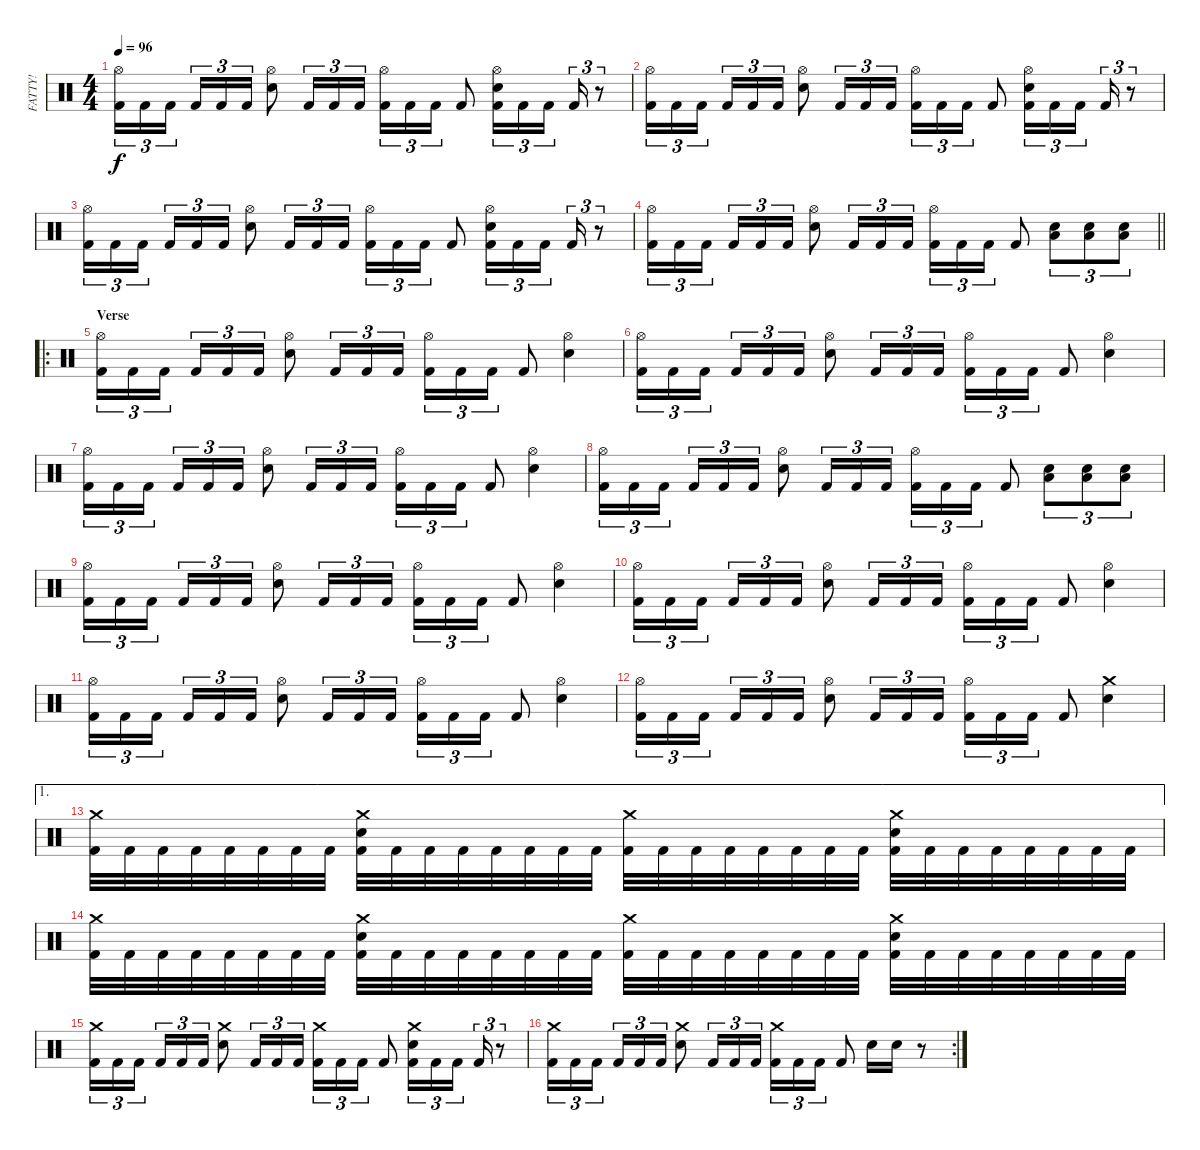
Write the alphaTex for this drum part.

\track ("FATTY!" "FATTY!") {instrument percussion}
\staff {score}
\articulation defaults
\ts (4 4)
\tempo 96
\clef neutral
\ks c
("Hi-Hat (open)" "Kick (hit) 2").16{tu (3 2) dy f} "Kick (hit) 2".16{tu (3 2)} "Kick (hit) 2".16{tu (3 2)} "Kick (hit) 2".16{tu (3 2)} "Kick (hit) 2".16{tu (3 2)} "Kick (hit) 2".16{tu (3 2)} ("Hi-Hat (open)" "Electric Snare (hit)").8 "Kick (hit) 2".16{tu (3 2)} "Kick (hit) 2".16{tu (3 2)} "Kick (hit) 2".16{tu (3 2)} ("Hi-Hat (open)" "Kick (hit) 2").16{tu (3 2)} "Kick (hit) 2".16{tu (3 2)} "Kick (hit) 2".16{tu (3 2)} "Kick (hit) 2".8 ("Hi-Hat (open)" "Electric Snare (hit)" "Kick (hit) 2").16{tu (3 2)} "Kick (hit) 2".16{tu (3 2)} "Kick (hit) 2".16{tu (3 2)} "Kick (hit) 2".16{tu (3 2)} r.8{tu (3 2)} |
("Hi-Hat (open)" "Kick (hit) 2").16{tu (3 2)} "Kick (hit) 2".16{tu (3 2)} "Kick (hit) 2".16{tu (3 2)} "Kick (hit) 2".16{tu (3 2)} "Kick (hit) 2".16{tu (3 2)} "Kick (hit) 2".16{tu (3 2)} ("Hi-Hat (open)" "Electric Snare (hit)").8 "Kick (hit) 2".16{tu (3 2)} "Kick (hit) 2".16{tu (3 2)} "Kick (hit) 2".16{tu (3 2)} ("Hi-Hat (open)" "Kick (hit) 2").16{tu (3 2)} "Kick (hit) 2".16{tu (3 2)} "Kick (hit) 2".16{tu (3 2)} "Kick (hit) 2".8 ("Hi-Hat (open)" "Electric Snare (hit)" "Kick (hit) 2").16{tu (3 2)} "Kick (hit) 2".16{tu (3 2)} "Kick (hit) 2".16{tu (3 2)} "Kick (hit) 2".16{tu (3 2)} r.8{tu (3 2)} |
("Hi-Hat (open)" "Kick (hit) 2").16{tu (3 2)} "Kick (hit) 2".16{tu (3 2)} "Kick (hit) 2".16{tu (3 2)} "Kick (hit) 2".16{tu (3 2)} "Kick (hit) 2".16{tu (3 2)} "Kick (hit) 2".16{tu (3 2)} ("Hi-Hat (open)" "Electric Snare (hit)").8 "Kick (hit) 2".16{tu (3 2)} "Kick (hit) 2".16{tu (3 2)} "Kick (hit) 2".16{tu (3 2)} ("Hi-Hat (open)" "Kick (hit) 2").16{tu (3 2)} "Kick (hit) 2".16{tu (3 2)} "Kick (hit) 2".16{tu (3 2)} "Kick (hit) 2".8 ("Hi-Hat (open)" "Electric Snare (hit)" "Kick (hit) 2").16{tu (3 2)} "Kick (hit) 2".16{tu (3 2)} "Kick (hit) 2".16{tu (3 2)} "Kick (hit) 2".16{tu (3 2)} r.8{tu (3 2)} |
\barLineRight lightlight
("Hi-Hat (open)" "Kick (hit) 2").16{tu (3 2)} "Kick (hit) 2".16{tu (3 2)} "Kick (hit) 2".16{tu (3 2)} "Kick (hit) 2".16{tu (3 2)} "Kick (hit) 2".16{tu (3 2)} "Kick (hit) 2".16{tu (3 2)} ("Hi-Hat (open)" "Electric Snare (hit)").8 "Kick (hit) 2".16{tu (3 2)} "Kick (hit) 2".16{tu (3 2)} "Kick (hit) 2".16{tu (3 2)} ("Hi-Hat (open)" "Kick (hit) 2").16{tu (3 2)} "Kick (hit) 2".16{tu (3 2)} "Kick (hit) 2".16{tu (3 2)} "Kick (hit) 2".8 ("Low Tom (hit)" "Electric Snare (hit)").8{tu (3 2)} ("Low Tom (hit)" "Electric Snare (hit)").8{tu (3 2)} ("Low Tom (hit)" "Electric Snare (hit)").8{tu (3 2)} |
\ro
\section ("" "Verse")
("Hi-Hat (open)" "Kick (hit) 2").16{tu (3 2)} "Kick (hit) 2".16{tu (3 2)} "Kick (hit) 2".16{tu (3 2)} "Kick (hit) 2".16{tu (3 2)} "Kick (hit) 2".16{tu (3 2)} "Kick (hit) 2".16{tu (3 2)} ("Hi-Hat (open)" "Electric Snare (hit)").8 "Kick (hit) 2".16{tu (3 2)} "Kick (hit) 2".16{tu (3 2)} "Kick (hit) 2".16{tu (3 2)} ("Hi-Hat (open)" "Kick (hit) 2").16{tu (3 2)} "Kick (hit) 2".16{tu (3 2)} "Kick (hit) 2".16{tu (3 2)} "Kick (hit) 2".8 ("Hi-Hat (open)" "Electric Snare (hit)").4 |
("Hi-Hat (open)" "Kick (hit) 2").16{tu (3 2)} "Kick (hit) 2".16{tu (3 2)} "Kick (hit) 2".16{tu (3 2)} "Kick (hit) 2".16{tu (3 2)} "Kick (hit) 2".16{tu (3 2)} "Kick (hit) 2".16{tu (3 2)} ("Hi-Hat (open)" "Electric Snare (hit)").8 "Kick (hit) 2".16{tu (3 2)} "Kick (hit) 2".16{tu (3 2)} "Kick (hit) 2".16{tu (3 2)} ("Hi-Hat (open)" "Kick (hit) 2").16{tu (3 2)} "Kick (hit) 2".16{tu (3 2)} "Kick (hit) 2".16{tu (3 2)} "Kick (hit) 2".8 ("Hi-Hat (open)" "Electric Snare (hit)").4 |
("Hi-Hat (open)" "Kick (hit) 2").16{tu (3 2)} "Kick (hit) 2".16{tu (3 2)} "Kick (hit) 2".16{tu (3 2)} "Kick (hit) 2".16{tu (3 2)} "Kick (hit) 2".16{tu (3 2)} "Kick (hit) 2".16{tu (3 2)} ("Hi-Hat (open)" "Electric Snare (hit)").8 "Kick (hit) 2".16{tu (3 2)} "Kick (hit) 2".16{tu (3 2)} "Kick (hit) 2".16{tu (3 2)} ("Hi-Hat (open)" "Kick (hit) 2").16{tu (3 2)} "Kick (hit) 2".16{tu (3 2)} "Kick (hit) 2".16{tu (3 2)} "Kick (hit) 2".8 ("Hi-Hat (open)" "Electric Snare (hit)").4 |
("Hi-Hat (open)" "Kick (hit) 2").16{tu (3 2)} "Kick (hit) 2".16{tu (3 2)} "Kick (hit) 2".16{tu (3 2)} "Kick (hit) 2".16{tu (3 2)} "Kick (hit) 2".16{tu (3 2)} "Kick (hit) 2".16{tu (3 2)} ("Hi-Hat (open)" "Electric Snare (hit)").8 "Kick (hit) 2".16{tu (3 2)} "Kick (hit) 2".16{tu (3 2)} "Kick (hit) 2".16{tu (3 2)} ("Hi-Hat (open)" "Kick (hit) 2").16{tu (3 2)} "Kick (hit) 2".16{tu (3 2)} "Kick (hit) 2".16{tu (3 2)} "Kick (hit) 2".8 ("Low Tom (hit)" "Electric Snare (hit)").8{tu (3 2)} ("Low Tom (hit)" "Electric Snare (hit)").8{tu (3 2)} ("Low Tom (hit)" "Electric Snare (hit)").8{tu (3 2)} |
("Hi-Hat (open)" "Kick (hit) 2").16{tu (3 2)} "Kick (hit) 2".16{tu (3 2)} "Kick (hit) 2".16{tu (3 2)} "Kick (hit) 2".16{tu (3 2)} "Kick (hit) 2".16{tu (3 2)} "Kick (hit) 2".16{tu (3 2)} ("Hi-Hat (open)" "Electric Snare (hit)").8 "Kick (hit) 2".16{tu (3 2)} "Kick (hit) 2".16{tu (3 2)} "Kick (hit) 2".16{tu (3 2)} ("Hi-Hat (open)" "Kick (hit) 2").16{tu (3 2)} "Kick (hit) 2".16{tu (3 2)} "Kick (hit) 2".16{tu (3 2)} "Kick (hit) 2".8 ("Hi-Hat (open)" "Electric Snare (hit)").4 |
("Hi-Hat (open)" "Kick (hit) 2").16{tu (3 2)} "Kick (hit) 2".16{tu (3 2)} "Kick (hit) 2".16{tu (3 2)} "Kick (hit) 2".16{tu (3 2)} "Kick (hit) 2".16{tu (3 2)} "Kick (hit) 2".16{tu (3 2)} ("Hi-Hat (open)" "Electric Snare (hit)").8 "Kick (hit) 2".16{tu (3 2)} "Kick (hit) 2".16{tu (3 2)} "Kick (hit) 2".16{tu (3 2)} ("Hi-Hat (open)" "Kick (hit) 2").16{tu (3 2)} "Kick (hit) 2".16{tu (3 2)} "Kick (hit) 2".16{tu (3 2)} "Kick (hit) 2".8 ("Hi-Hat (open)" "Electric Snare (hit)").4 |
("Hi-Hat (open)" "Kick (hit) 2").16{tu (3 2)} "Kick (hit) 2".16{tu (3 2)} "Kick (hit) 2".16{tu (3 2)} "Kick (hit) 2".16{tu (3 2)} "Kick (hit) 2".16{tu (3 2)} "Kick (hit) 2".16{tu (3 2)} ("Hi-Hat (open)" "Electric Snare (hit)").8 "Kick (hit) 2".16{tu (3 2)} "Kick (hit) 2".16{tu (3 2)} "Kick (hit) 2".16{tu (3 2)} ("Hi-Hat (open)" "Kick (hit) 2").16{tu (3 2)} "Kick (hit) 2".16{tu (3 2)} "Kick (hit) 2".16{tu (3 2)} "Kick (hit) 2".8 ("Hi-Hat (open)" "Electric Snare (hit)").4 |
("Hi-Hat (open)" "Kick (hit) 2").16{tu (3 2)} "Kick (hit) 2".16{tu (3 2)} "Kick (hit) 2".16{tu (3 2)} "Kick (hit) 2".16{tu (3 2)} "Kick (hit) 2".16{tu (3 2)} "Kick (hit) 2".16{tu (3 2)} ("Hi-Hat (open)" "Electric Snare (hit)").8 "Kick (hit) 2".16{tu (3 2)} "Kick (hit) 2".16{tu (3 2)} "Kick (hit) 2".16{tu (3 2)} ("Hi-Hat (open)" "Kick (hit) 2").16{tu (3 2)} "Kick (hit) 2".16{tu (3 2)} "Kick (hit) 2".16{tu (3 2)} "Kick (hit) 2".8 ("Crash medium (hit)" "Electric Snare (hit)").4 |
\ae 1
("Crash medium (hit)" "Kick (hit) 2").32 "Kick (hit) 2".32 "Kick (hit) 2".32 "Kick (hit) 2".32 "Kick (hit) 2".32 "Kick (hit) 2".32 "Kick (hit) 2".32 "Kick (hit) 2".32 ("Crash medium (hit)" "Electric Snare (hit)" "Kick (hit) 2").32 "Kick (hit) 2".32 "Kick (hit) 2".32 "Kick (hit) 2".32 "Kick (hit) 2".32 "Kick (hit) 2".32 "Kick (hit) 2".32 "Kick (hit) 2".32 ("Crash medium (hit)" "Kick (hit) 2").32 "Kick (hit) 2".32 "Kick (hit) 2".32 "Kick (hit) 2".32 "Kick (hit) 2".32 "Kick (hit) 2".32 "Kick (hit) 2".32 "Kick (hit) 2".32 ("Crash medium (hit)" "Electric Snare (hit)" "Kick (hit) 2").32 "Kick (hit) 2".32 "Kick (hit) 2".32 "Kick (hit) 2".32 "Kick (hit) 2".32 "Kick (hit) 2".32 "Kick (hit) 2".32 "Kick (hit) 2".32 |
("Crash medium (hit)" "Kick (hit) 2").32 "Kick (hit) 2".32 "Kick (hit) 2".32 "Kick (hit) 2".32 "Kick (hit) 2".32 "Kick (hit) 2".32 "Kick (hit) 2".32 "Kick (hit) 2".32 ("Crash medium (hit)" "Electric Snare (hit)" "Kick (hit) 2").32 "Kick (hit) 2".32 "Kick (hit) 2".32 "Kick (hit) 2".32 "Kick (hit) 2".32 "Kick (hit) 2".32 "Kick (hit) 2".32 "Kick (hit) 2".32 ("Crash medium (hit)" "Kick (hit) 2").32 "Kick (hit) 2".32 "Kick (hit) 2".32 "Kick (hit) 2".32 "Kick (hit) 2".32 "Kick (hit) 2".32 "Kick (hit) 2".32 "Kick (hit) 2".32 ("Crash medium (hit)" "Electric Snare (hit)" "Kick (hit) 2").32 "Kick (hit) 2".32 "Kick (hit) 2".32 "Kick (hit) 2".32 "Kick (hit) 2".32 "Kick (hit) 2".32 "Kick (hit) 2".32 "Kick (hit) 2".32 |
("Crash medium (hit)" "Kick (hit) 2").16{tu (3 2)} "Kick (hit) 2".16{tu (3 2)} "Kick (hit) 2".16{tu (3 2)} "Kick (hit) 2".16{tu (3 2)} "Kick (hit) 2".16{tu (3 2)} "Kick (hit) 2".16{tu (3 2)} ("Crash medium (hit)" "Electric Snare (hit)").8 "Kick (hit) 2".16{tu (3 2)} "Kick (hit) 2".16{tu (3 2)} "Kick (hit) 2".16{tu (3 2)} ("Crash medium (hit)" "Kick (hit) 2").16{tu (3 2)} "Kick (hit) 2".16{tu (3 2)} "Kick (hit) 2".16{tu (3 2)} "Kick (hit) 2".8 ("Crash medium (hit)" "Electric Snare (hit)" "Kick (hit) 2").16{tu (3 2)} "Kick (hit) 2".16{tu (3 2)} "Kick (hit) 2".16{tu (3 2)} "Kick (hit) 2".16{tu (3 2)} r.8{tu (3 2)} |
\rc 2
("Crash medium (hit)" "Kick (hit) 2").16{tu (3 2)} "Kick (hit) 2".16{tu (3 2)} "Kick (hit) 2".16{tu (3 2)} "Kick (hit) 2".16{tu (3 2)} "Kick (hit) 2".16{tu (3 2)} "Kick (hit) 2".16{tu (3 2)} ("Crash medium (hit)" "Electric Snare (hit)").8 "Kick (hit) 2".16{tu (3 2)} "Kick (hit) 2".16{tu (3 2)} "Kick (hit) 2".16{tu (3 2)} ("Crash medium (hit)" "Kick (hit) 2").16{tu (3 2)} "Kick (hit) 2".16{tu (3 2)} "Kick (hit) 2".16{tu (3 2)} "Kick (hit) 2".8 "Electric Snare (hit)".16 "Electric Snare (hit)".16 r.8
